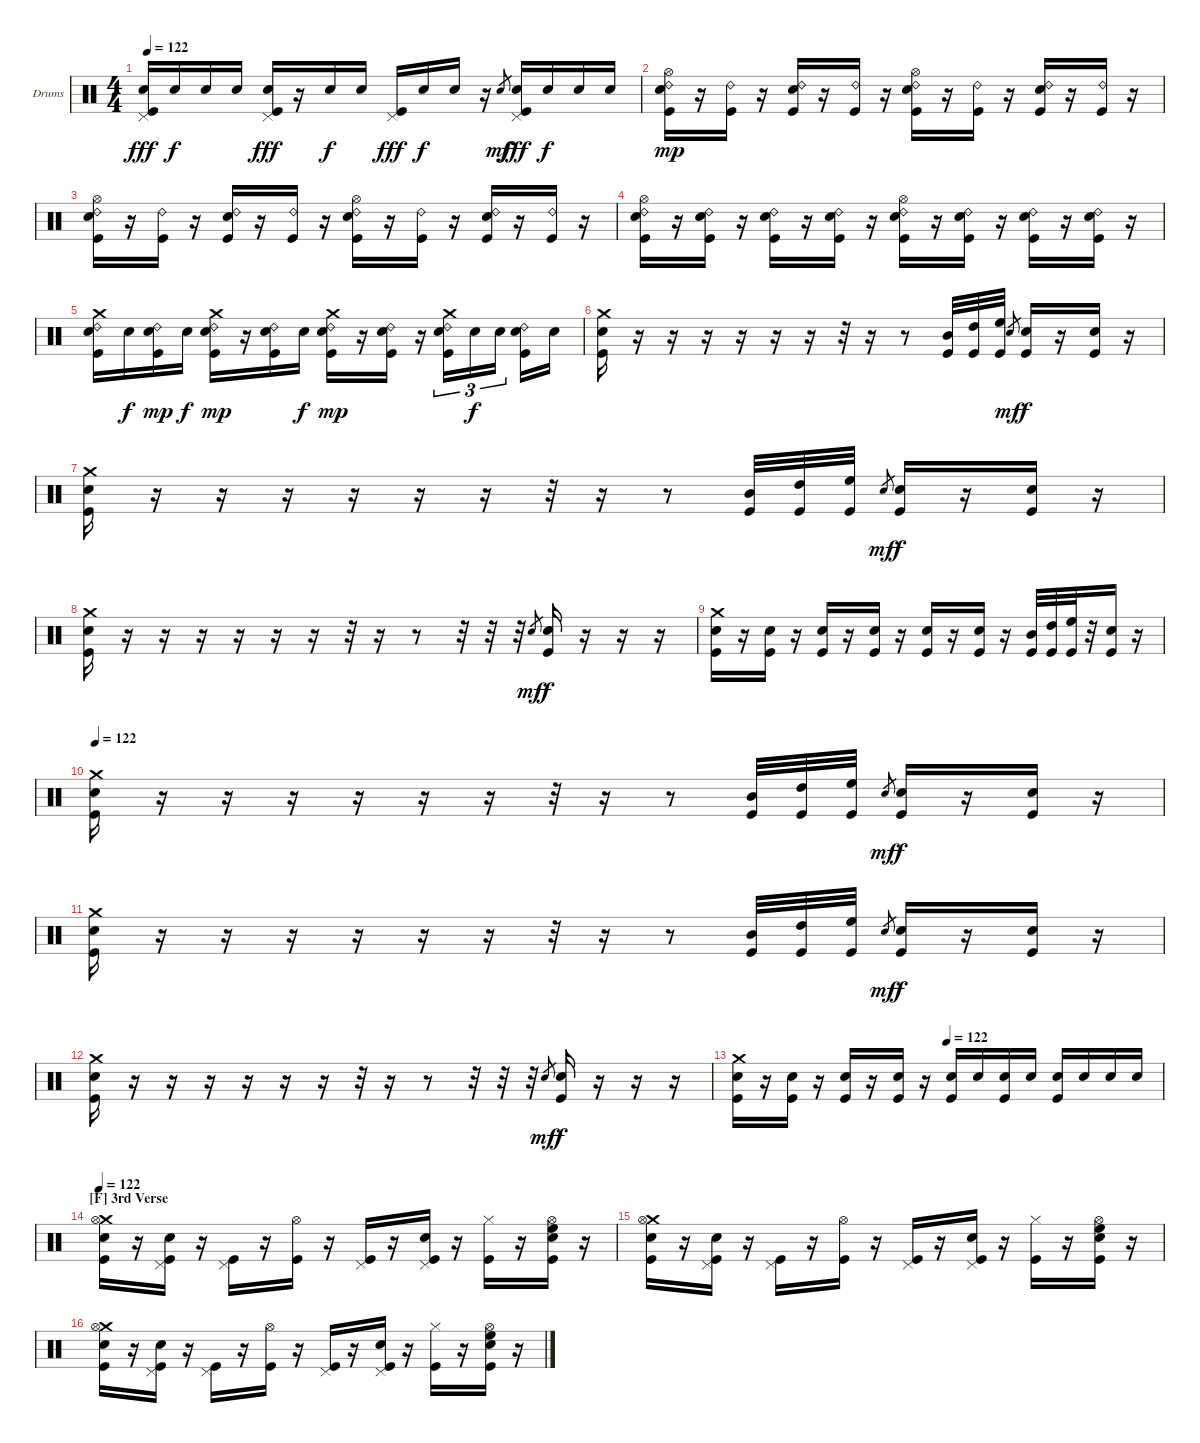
\bracketExtendMode groupsimilarinstruments
\firstSystemTrackNameOrientation horizontal
\otherSystemsTrackNameOrientation horizontal
\track ("Drumkit" "Drums") {instrument percussion}
\staff {score}
\articulation defaults
\ts (4 4)
\tempo 122
\clef neutral
\ks c
("Pedal Hi-Hat (hit)" "Snare (hit) 2" "Kick (hit)").16{dy fff} "Snare (hit) 2".16{dy f} "Snare (hit) 2".16 "Snare (hit) 2".16 ("Pedal Hi-Hat (hit)" "Snare (hit) 2" "Kick (hit)").16{dy fff} r.16 "Snare (hit) 2".16{dy f} "Snare (hit) 2".16 ("Pedal Hi-Hat (hit)" "Kick (hit)").16{dy fff} "Snare (hit) 2".16{dy f} "Snare (hit) 2".16 r.16 "Snare (hit) 2".8{gr dy mf} ("Pedal Hi-Hat (hit)" "Snare (hit) 2" "Kick (hit)").16{dy fff} "Snare (hit) 2".16{dy f} "Snare (hit) 2".16 "Snare (hit) 2".16 |
("Ride (bell) 2" "Hi-Hat (open)" "Snare (hit) 2" "Kick (hit)").16{dy mp} r.16 ("Ride (bell) 2" "Kick (hit)").16 r.16 ("Ride (bell) 2" "Snare (hit) 2" "Kick (hit)").16 r.16 ("Ride (bell) 2" "Kick (hit)").16 r.16 ("Ride (bell) 2" "Hi-Hat (open)" "Snare (hit) 2" "Kick (hit)").16 r.16 ("Ride (bell) 2" "Kick (hit)").16 r.16 ("Ride (bell) 2" "Snare (hit) 2" "Kick (hit)").16 r.16 ("Ride (bell) 2" "Kick (hit)").16 r.16 |
("Ride (bell) 2" "Hi-Hat (open)" "Snare (hit) 2" "Kick (hit)").16 r.16 ("Ride (bell) 2" "Kick (hit)").16 r.16 ("Ride (bell) 2" "Snare (hit) 2" "Kick (hit)").16 r.16 ("Ride (bell) 2" "Kick (hit)").16 r.16 ("Ride (bell) 2" "Hi-Hat (open)" "Snare (hit) 2" "Kick (hit)").16 r.16 ("Ride (bell) 2" "Kick (hit)").16 r.16 ("Ride (bell) 2" "Snare (hit) 2" "Kick (hit)").16 r.16 ("Ride (bell) 2" "Kick (hit)").16 r.16 |
("Ride (bell) 2" "Hi-Hat (open)" "Snare (hit) 2" "Kick (hit)").16 r.16 ("Ride (bell) 2" "Snare (hit) 2" "Kick (hit)").16 r.16 ("Ride (bell) 2" "Snare (hit) 2" "Kick (hit)").16 r.16 ("Ride (bell) 2" "Snare (hit) 2" "Kick (hit)").16 r.16 ("Ride (bell) 2" "Hi-Hat (open)" "Snare (hit) 2" "Kick (hit)").16 r.16 ("Ride (bell) 2" "Snare (hit) 2" "Kick (hit)").16 r.16 ("Ride (bell) 2" "Snare (hit) 2" "Kick (hit)").16 r.16 ("Ride (bell) 2" "Snare (hit) 2" "Kick (hit)").16 r.16 |
("Ride (bell) 2" "Crash medium (hit)" "Snare (hit) 2" "Kick (hit)").16 "Snare (hit) 2".16{dy f} ("Ride (bell) 2" "Snare (hit) 2" "Kick (hit)").16{dy mp} "Snare (hit) 2".16{dy f} ("Ride (bell) 2" "Crash medium (hit)" "Snare (hit) 2" "Kick (hit)").16{dy mp} r.16 ("Ride (bell) 2" "Snare (hit) 2" "Kick (hit)").16 "Snare (hit) 2".16{dy f} ("Ride (bell) 2" "Crash medium (hit)" "Snare (hit) 2" "Kick (hit)").16{dy mp} r.16 ("Ride (bell) 2" "Snare (hit) 2" "Kick (hit)").16 r.16 ("Ride (bell) 2" "Crash medium (hit)" "Snare (hit) 2" "Kick (hit)").16{tu (3 2)} "Snare (hit) 2".16{tu (3 2) dy f} "Snare (hit) 2".16{tu (3 2)} ("Ride (bell) 2" "Snare (hit) 2" "Kick (hit)").16 "Snare (hit) 2".16 |
("Crash medium (hit)" "Snare (hit) 2" "Kick (hit)").16 r.16 r.16 r.16 r.16 r.16 r.16 r.32 r.16 r.8 ("Mid Tom (hit)" "Kick (hit)").32 ("High Tom (hit)" "Kick (hit)").32 ("High Floor Tom (hit)" "Kick (hit)").32 "Snare (hit) 2".8{gr dy mf} ("Snare (hit) 2" "Kick (hit)").16{dy f} r.16 ("Snare (hit) 2" "Kick (hit)").16 r.16 |
("Crash medium (hit)" "Snare (hit) 2" "Kick (hit)").16 r.16 r.16 r.16 r.16 r.16 r.16 r.32 r.16 r.8 ("Mid Tom (hit)" "Kick (hit)").32 ("High Tom (hit)" "Kick (hit)").32 ("High Floor Tom (hit)" "Kick (hit)").32 "Snare (hit) 2".8{gr dy mf} ("Snare (hit) 2" "Kick (hit)").16{dy f} r.16 ("Snare (hit) 2" "Kick (hit)").16 r.16 |
("Crash medium (hit)" "Snare (hit) 2" "Kick (hit)").16 r.16 r.16 r.16 r.16 r.16 r.16 r.32 r.16 r.8 r.32 r.32 r.32 "Snare (hit) 2".8{gr dy mf} ("Snare (hit) 2" "Kick (hit)").16{dy f} r.16 r.16 r.16 |
("Crash medium (hit)" "Snare (hit) 2" "Kick (hit)").16 r.16 ("Snare (hit) 2" "Kick (hit)").16 r.16 ("Snare (hit) 2" "Kick (hit)").16 r.16 ("Snare (hit) 2" "Kick (hit)").16 r.16 ("Snare (hit) 2" "Kick (hit)").16 r.16 ("Snare (hit) 2" "Kick (hit)").16 r.16 ("Mid Tom (hit)" "Kick (hit)").32 ("High Tom (hit)" "Kick (hit)").32 ("High Floor Tom (hit)" "Kick (hit)").32 r.32 ("Snare (hit) 2" "Kick (hit)").16 r.16 |
\tempo 122
("Crash medium (hit)" "Snare (hit) 2" "Kick (hit)").16 r.16 r.16 r.16 r.16 r.16 r.16 r.32 r.16 r.8 ("Mid Tom (hit)" "Kick (hit)").32 ("High Tom (hit)" "Kick (hit)").32 ("High Floor Tom (hit)" "Kick (hit)").32 "Snare (hit) 2".8{gr dy mf} ("Snare (hit) 2" "Kick (hit)").16{dy f} r.16 ("Snare (hit) 2" "Kick (hit)").16 r.16 |
("Crash medium (hit)" "Snare (hit) 2" "Kick (hit)").16 r.16 r.16 r.16 r.16 r.16 r.16 r.32 r.16 r.8 ("Mid Tom (hit)" "Kick (hit)").32 ("High Tom (hit)" "Kick (hit)").32 ("High Floor Tom (hit)" "Kick (hit)").32 "Snare (hit) 2".8{gr dy mf} ("Snare (hit) 2" "Kick (hit)").16{dy f} r.16 ("Snare (hit) 2" "Kick (hit)").16 r.16 |
("Crash medium (hit)" "Snare (hit) 2" "Kick (hit)").16 r.16 r.16 r.16 r.16 r.16 r.16 r.32 r.16 r.8 r.32 r.32 r.32 "Snare (hit) 2".8{gr dy mf} ("Snare (hit) 2" "Kick (hit)").16{dy f} r.16 r.16 r.16 |
\tempo (122 0.492308)
("Crash medium (hit)" "Snare (hit) 2" "Kick (hit)").16 r.16 ("Snare (hit) 2" "Kick (hit)").16 r.16 ("Snare (hit) 2" "Kick (hit)").16 r.16 ("Snare (hit) 2" "Kick (hit)").16 r.16 ("Snare (hit) 2" "Kick (hit)").16 "Snare (hit) 2".16 ("Snare (hit) 2" "Kick (hit)").16 "Snare (hit) 2".16 ("Snare (hit) 2" "Kick (hit)").16 "Snare (hit) 2".16 "Snare (hit) 2".16 "Snare (hit) 2".16 |
\section ("F" "3rd Verse")
\tempo 122
("Crash medium (hit)" "Hi-Hat (open)" "Snare (hit) 2" "Kick (hit)").16 r.16 ("Pedal Hi-Hat (hit)" "Snare (hit) 2" "Kick (hit)").16 r.16 ("Pedal Hi-Hat (hit)" "Kick (hit)").16 r.16 ("Hi-Hat (open)" "Kick (hit)").16 r.16 ("Pedal Hi-Hat (hit)" "Kick (hit)").16 r.16 ("Pedal Hi-Hat (hit)" "Snare (hit) 2" "Kick (hit)").16 r.16 ("Hi-Hat (closed)" "Kick (hit)").16 r.16 ("Hi-Hat (open)" "Snare (hit) 2" "High Floor Tom (hit)" "Kick (hit)").16 r.16 |
("Crash medium (hit)" "Hi-Hat (open)" "Snare (hit) 2" "Kick (hit)").16 r.16 ("Pedal Hi-Hat (hit)" "Snare (hit) 2" "Kick (hit)").16 r.16 ("Pedal Hi-Hat (hit)" "Kick (hit)").16 r.16 ("Hi-Hat (open)" "Kick (hit)").16 r.16 ("Pedal Hi-Hat (hit)" "Kick (hit)").16 r.16 ("Pedal Hi-Hat (hit)" "Snare (hit) 2" "Kick (hit)").16 r.16 ("Hi-Hat (closed)" "Kick (hit)").16 r.16 ("Hi-Hat (open)" "Snare (hit) 2" "High Floor Tom (hit)" "Kick (hit)").16 r.16 |
("Crash medium (hit)" "Hi-Hat (open)" "Snare (hit) 2" "Kick (hit)").16 r.16 ("Pedal Hi-Hat (hit)" "Snare (hit) 2" "Kick (hit)").16 r.16 ("Pedal Hi-Hat (hit)" "Kick (hit)").16 r.16 ("Hi-Hat (open)" "Kick (hit)").16 r.16 ("Pedal Hi-Hat (hit)" "Kick (hit)").16 r.16 ("Pedal Hi-Hat (hit)" "Snare (hit) 2" "Kick (hit)").16 r.16 ("Hi-Hat (closed)" "Kick (hit)").16 r.16 ("Hi-Hat (open)" "Snare (hit) 2" "High Floor Tom (hit)" "Kick (hit)").16 r.16
